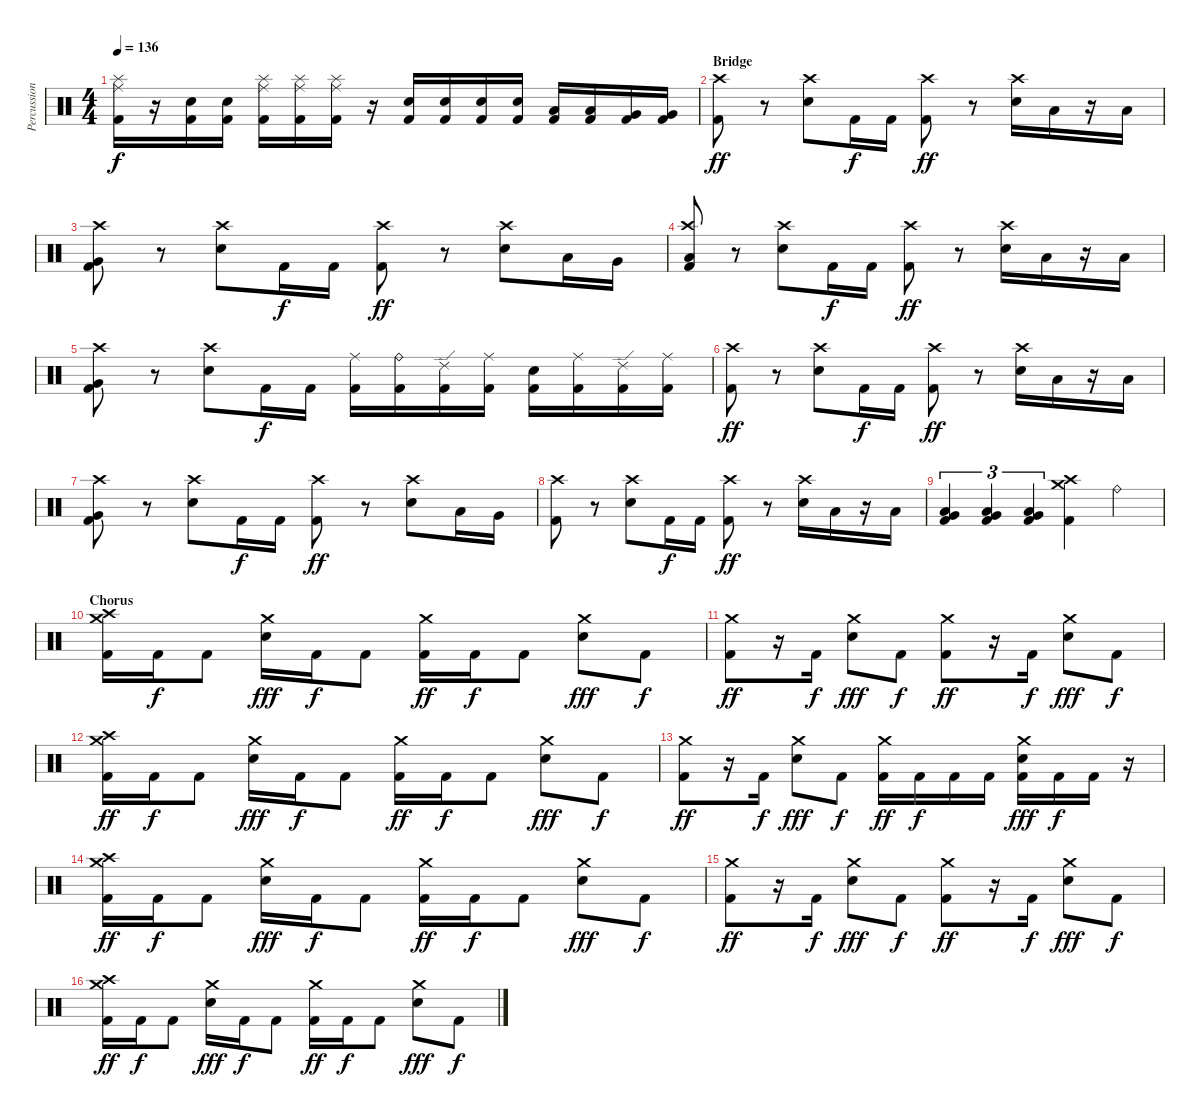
\track ("Percussions" "Percussion") {instrument percussion}
\staff {score}
\articulation defaults
\ts (4 4)
\tempo 136
\clef neutral
\ks c
("Splash (hit)" "Ride (middle)" "Kick (hit) 2").16{dy f} r.16 ("Electric Snare (hit)" "Kick (hit) 2").16 ("Electric Snare (hit)" "Kick (hit) 2").16 ("Splash (hit)" "Ride (middle)" "Kick (hit) 2").16 ("Splash (hit)" "Ride (middle)" "Kick (hit) 2").16 ("Splash (hit)" "Ride (middle)" "Kick (hit) 2").16 r.16 ("Electric Snare (hit)" "Kick (hit) 2").16 ("Electric Snare (hit)" "Kick (hit) 2").16 ("Electric Snare (hit)" "Kick (hit) 2").16 ("Electric Snare (hit)" "Kick (hit) 2").16 ("Low Tom (hit)" "Kick (hit) 2").16 ("Low Tom (hit)" "Kick (hit) 2").16 ("Very Low Tom (hit)" "Kick (hit) 2").16 ("Very Low Tom (hit)" "Kick (hit) 2").16 |
\section ("" "Bridge")
("Crash high (hit)" "Kick (hit) 2").8{dy ff} r.8 ("Crash high (hit)" "Electric Snare (hit)").8 "Kick (hit) 2".16{dy f} "Kick (hit) 2".16 ("Crash high (hit)" "Kick (hit) 2").8{dy ff} r.8 ("Crash high (hit)" "Electric Snare (hit)").16 "Low Tom (hit)".16 r.16 "Low Tom (hit)".16 |
("Crash high (hit)" "Very Low Tom (hit)" "Kick (hit) 2").8 r.8 ("Crash high (hit)" "Electric Snare (hit)").8 "Kick (hit) 2".16{dy f} "Kick (hit) 2".16 ("Crash high (hit)" "Kick (hit) 2").8{dy ff} r.8 ("Crash high (hit)" "Electric Snare (hit)").8 "Low Tom (hit)".16 "Very Low Tom (hit)".16 |
("Crash high (hit)" "Low Floor Tom (hit)" "Kick (hit) 2").8 r.8 ("Crash high (hit)" "Electric Snare (hit)").8 "Kick (hit) 2".16{dy f} "Kick (hit) 2".16 ("Crash high (hit)" "Kick (hit) 2").8{dy ff} r.8 ("Crash high (hit)" "Electric Snare (hit)").16 "Low Tom (hit)".16 r.16 "Low Tom (hit)".16 |
("Crash high (hit)" "Very Low Tom (hit)" "Kick (hit) 2").8 r.8 ("Crash high (hit)" "Electric Snare (hit)").8 "Kick (hit) 2".16{dy f} "Kick (hit) 2".16 ("Ride (middle)" "Kick (hit) 2").16 ("Ride (bell)" "Kick (hit) 2").16 ("Ride (edge) 2" "Kick (hit) 2").16 ("Ride (middle)" "Kick (hit) 2").16 ("Electric Snare (hit)" "Kick (hit) 2").16 ("Ride (middle)" "Kick (hit) 2").16 ("Ride (edge) 2" "Kick (hit) 2").16 ("Ride (middle)" "Kick (hit) 2").16 |
("Crash high (hit)" "Kick (hit) 2").8{dy ff} r.8 ("Crash high (hit)" "Electric Snare (hit)").8 "Kick (hit) 2".16{dy f} "Kick (hit) 2".16 ("Crash high (hit)" "Kick (hit) 2").8{dy ff} r.8 ("Crash high (hit)" "Electric Snare (hit)").16 "Low Tom (hit)".16 r.16 "Low Tom (hit)".16 |
("Crash high (hit)" "Very Low Tom (hit)" "Kick (hit) 2").8 r.8 ("Crash high (hit)" "Electric Snare (hit)").8 "Kick (hit) 2".16{dy f} "Kick (hit) 2".16 ("Crash high (hit)" "Kick (hit) 2").8{dy ff} r.8 ("Crash high (hit)" "Electric Snare (hit)").8 "Low Tom (hit)".16 "Very Low Tom (hit)".16 |
("Crash high (hit)" "Kick (hit) 2").8 r.8 ("Crash high (hit)" "Electric Snare (hit)").8 "Kick (hit) 2".16{dy f} "Kick (hit) 2".16 ("Crash high (hit)" "Kick (hit) 2").8{dy ff} r.8 ("Crash high (hit)" "Electric Snare (hit)").16 "Low Tom (hit)".16 r.16 "Low Tom (hit)".16 |
("Very Low Tom (hit)" "Low Floor Tom (hit)" "Kick (hit) 2").4{tu (3 2)} ("Very Low Tom (hit)" "Low Floor Tom (hit)" "Kick (hit) 2").4{tu (3 2)} ("Very Low Tom (hit)" "Low Floor Tom (hit)" "Kick (hit) 2").4{tu (3 2)} ("Crash medium (hit)" "Crash high (hit)" "Kick (hit) 2").4 "Ride (bell)".4 |
\section ("" "Chorus")
("Crash high (hit)" "Crash medium (hit)" "Kick (hit) 2").16 "Kick (hit) 2".16{dy f} "Kick (hit) 2".8 ("Crash medium (hit)" "Electric Snare (hit)").16{dy fff} "Kick (hit) 2".16{dy f} "Kick (hit) 2".8 ("Crash medium (hit)" "Kick (hit) 2").16{dy ff} "Kick (hit) 2".16{dy f} "Kick (hit) 2".8 ("Crash medium (hit)" "Electric Snare (hit)").8{dy fff} "Kick (hit) 2".8{dy f} |
("Crash medium (hit)" "Kick (hit) 2").8{dy ff} r.16 "Kick (hit) 2".16{dy f} ("Crash medium (hit)" "Electric Snare (hit)").8{dy fff} "Kick (hit) 2".8{dy f} ("Crash medium (hit)" "Kick (hit) 2").8{dy ff} r.16 "Kick (hit) 2".16{dy f} ("Crash medium (hit)" "Electric Snare (hit)").8{dy fff} "Kick (hit) 2".8{dy f} |
("Crash high (hit)" "Crash medium (hit)" "Kick (hit) 2").16{dy ff} "Kick (hit) 2".16{dy f} "Kick (hit) 2".8 ("Crash medium (hit)" "Electric Snare (hit)").16{dy fff} "Kick (hit) 2".16{dy f} "Kick (hit) 2".8 ("Crash medium (hit)" "Kick (hit) 2").16{dy ff} "Kick (hit) 2".16{dy f} "Kick (hit) 2".8 ("Crash medium (hit)" "Electric Snare (hit)").8{dy fff} "Kick (hit) 2".8{dy f} |
("Crash medium (hit)" "Kick (hit) 2").8{dy ff} r.16 "Kick (hit) 2".16{dy f} ("Crash medium (hit)" "Electric Snare (hit)").8{dy fff} "Kick (hit) 2".8{dy f} ("Crash medium (hit)" "Kick (hit) 2").16{dy ff} "Kick (hit) 2".16{dy f} "Kick (hit) 2".16 "Kick (hit) 2".16 ("Crash medium (hit)" "Electric Snare (hit)" "Kick (hit) 2").16{dy fff} "Kick (hit) 2".16{dy f} "Kick (hit) 2".16 r.16 |
("Crash high (hit)" "Crash medium (hit)" "Kick (hit) 2").16{dy ff} "Kick (hit) 2".16{dy f} "Kick (hit) 2".8 ("Crash medium (hit)" "Electric Snare (hit)").16{dy fff} "Kick (hit) 2".16{dy f} "Kick (hit) 2".8 ("Crash medium (hit)" "Kick (hit) 2").16{dy ff} "Kick (hit) 2".16{dy f} "Kick (hit) 2".8 ("Crash medium (hit)" "Electric Snare (hit)").8{dy fff} "Kick (hit) 2".8{dy f} |
("Crash medium (hit)" "Kick (hit) 2").8{dy ff} r.16 "Kick (hit) 2".16{dy f} ("Crash medium (hit)" "Electric Snare (hit)").8{dy fff} "Kick (hit) 2".8{dy f} ("Crash medium (hit)" "Kick (hit) 2").8{dy ff} r.16 "Kick (hit) 2".16{dy f} ("Crash medium (hit)" "Electric Snare (hit)").8{dy fff} "Kick (hit) 2".8{dy f} |
("Crash high (hit)" "Crash medium (hit)" "Kick (hit) 2").16{dy ff} "Kick (hit) 2".16{dy f} "Kick (hit) 2".8 ("Crash medium (hit)" "Electric Snare (hit)").16{dy fff} "Kick (hit) 2".16{dy f} "Kick (hit) 2".8 ("Crash medium (hit)" "Kick (hit) 2").16{dy ff} "Kick (hit) 2".16{dy f} "Kick (hit) 2".8 ("Crash medium (hit)" "Electric Snare (hit)").8{dy fff} "Kick (hit) 2".8{dy f}
